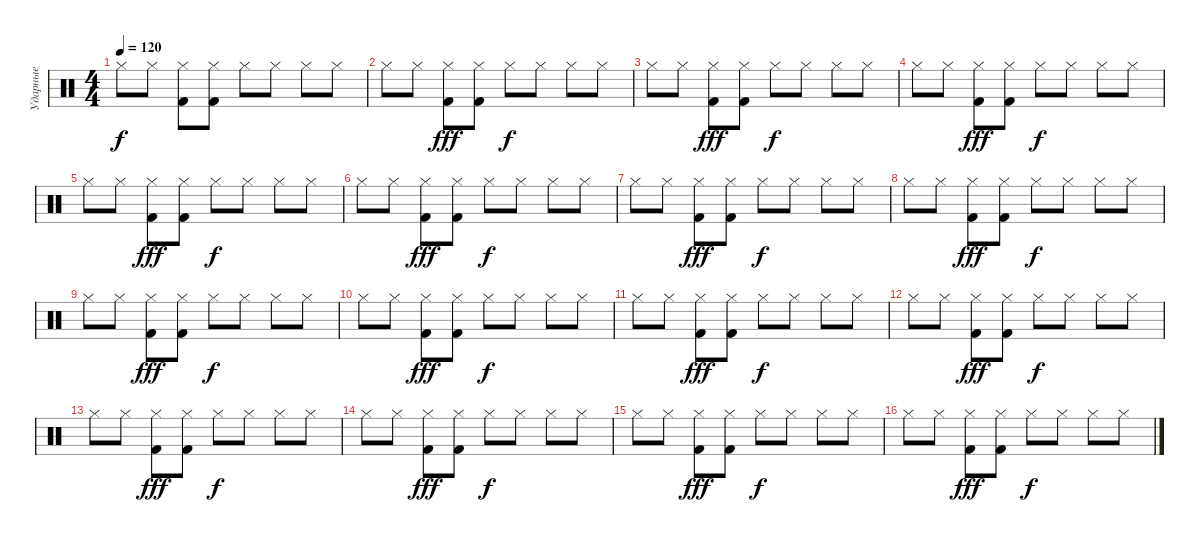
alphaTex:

\track ("Ударные" "Ударные") {instrument percussion}
\staff {score}
\articulation defaults
\ts (4 4)
\tempo 120
\clef neutral
\ks c "Hi-Hat (closed)".8{dy f} "Hi-Hat (closed)".8
("Hi-Hat (closed)" "Kick (hit) 2").8 ("Hi-Hat (closed)" "Kick (hit) 2").8 "Hi-Hat (closed)".8 "Hi-Hat (closed)".8 "Hi-Hat (closed)".8 "Hi-Hat (closed)".8 |
"Hi-Hat (closed)".8 "Hi-Hat (closed)".8 ("Hi-Hat (closed)" "Kick (hit) 2").8{dy fff} ("Hi-Hat (closed)" "Kick (hit) 2").8 "Hi-Hat (closed)".8{dy f} "Hi-Hat (closed)".8 "Hi-Hat (closed)".8 "Hi-Hat (closed)".8 |
"Hi-Hat (closed)".8 "Hi-Hat (closed)".8 ("Hi-Hat (closed)" "Kick (hit) 2").8{dy fff} ("Hi-Hat (closed)" "Kick (hit) 2").8 "Hi-Hat (closed)".8{dy f} "Hi-Hat (closed)".8 "Hi-Hat (closed)".8 "Hi-Hat (closed)".8 |
"Hi-Hat (closed)".8 "Hi-Hat (closed)".8 ("Hi-Hat (closed)" "Kick (hit) 2").8{dy fff} ("Hi-Hat (closed)" "Kick (hit) 2").8 "Hi-Hat (closed)".8{dy f} "Hi-Hat (closed)".8 "Hi-Hat (closed)".8 "Hi-Hat (closed)".8 |
"Hi-Hat (closed)".8 "Hi-Hat (closed)".8 ("Hi-Hat (closed)" "Kick (hit) 2").8{dy fff} ("Hi-Hat (closed)" "Kick (hit) 2").8 "Hi-Hat (closed)".8{dy f} "Hi-Hat (closed)".8 "Hi-Hat (closed)".8 "Hi-Hat (closed)".8 |
"Hi-Hat (closed)".8 "Hi-Hat (closed)".8 ("Hi-Hat (closed)" "Kick (hit) 2").8{dy fff} ("Hi-Hat (closed)" "Kick (hit) 2").8 "Hi-Hat (closed)".8{dy f} "Hi-Hat (closed)".8 "Hi-Hat (closed)".8 "Hi-Hat (closed)".8 |
"Hi-Hat (closed)".8 "Hi-Hat (closed)".8 ("Hi-Hat (closed)" "Kick (hit) 2").8{dy fff} ("Hi-Hat (closed)" "Kick (hit) 2").8 "Hi-Hat (closed)".8{dy f} "Hi-Hat (closed)".8 "Hi-Hat (closed)".8 "Hi-Hat (closed)".8 |
"Hi-Hat (closed)".8 "Hi-Hat (closed)".8 ("Hi-Hat (closed)" "Kick (hit) 2").8{dy fff} ("Hi-Hat (closed)" "Kick (hit) 2").8 "Hi-Hat (closed)".8{dy f} "Hi-Hat (closed)".8 "Hi-Hat (closed)".8 "Hi-Hat (closed)".8 |
"Hi-Hat (closed)".8 "Hi-Hat (closed)".8 ("Hi-Hat (closed)" "Kick (hit) 2").8{dy fff} ("Hi-Hat (closed)" "Kick (hit) 2").8 "Hi-Hat (closed)".8{dy f} "Hi-Hat (closed)".8 "Hi-Hat (closed)".8 "Hi-Hat (closed)".8 |
"Hi-Hat (closed)".8 "Hi-Hat (closed)".8 ("Hi-Hat (closed)" "Kick (hit) 2").8{dy fff} ("Hi-Hat (closed)" "Kick (hit) 2").8 "Hi-Hat (closed)".8{dy f} "Hi-Hat (closed)".8 "Hi-Hat (closed)".8 "Hi-Hat (closed)".8 |
"Hi-Hat (closed)".8 "Hi-Hat (closed)".8 ("Hi-Hat (closed)" "Kick (hit) 2").8{dy fff} ("Hi-Hat (closed)" "Kick (hit) 2").8 "Hi-Hat (closed)".8{dy f} "Hi-Hat (closed)".8 "Hi-Hat (closed)".8 "Hi-Hat (closed)".8 |
"Hi-Hat (closed)".8 "Hi-Hat (closed)".8 ("Hi-Hat (closed)" "Kick (hit) 2").8{dy fff} ("Hi-Hat (closed)" "Kick (hit) 2").8 "Hi-Hat (closed)".8{dy f} "Hi-Hat (closed)".8 "Hi-Hat (closed)".8 "Hi-Hat (closed)".8 |
"Hi-Hat (closed)".8 "Hi-Hat (closed)".8 ("Hi-Hat (closed)" "Kick (hit) 2").8{dy fff} ("Hi-Hat (closed)" "Kick (hit) 2").8 "Hi-Hat (closed)".8{dy f} "Hi-Hat (closed)".8 "Hi-Hat (closed)".8 "Hi-Hat (closed)".8 |
"Hi-Hat (closed)".8 "Hi-Hat (closed)".8 ("Hi-Hat (closed)" "Kick (hit) 2").8{dy fff} ("Hi-Hat (closed)" "Kick (hit) 2").8 "Hi-Hat (closed)".8{dy f} "Hi-Hat (closed)".8 "Hi-Hat (closed)".8 "Hi-Hat (closed)".8 |
"Hi-Hat (closed)".8 "Hi-Hat (closed)".8 ("Hi-Hat (closed)" "Kick (hit) 2").8{dy fff} ("Hi-Hat (closed)" "Kick (hit) 2").8 "Hi-Hat (closed)".8{dy f} "Hi-Hat (closed)".8 "Hi-Hat (closed)".8 "Hi-Hat (closed)".8 |
"Hi-Hat (closed)".8 "Hi-Hat (closed)".8 ("Hi-Hat (closed)" "Kick (hit) 2").8{dy fff} ("Hi-Hat (closed)" "Kick (hit) 2").8 "Hi-Hat (closed)".8{dy f} "Hi-Hat (closed)".8 "Hi-Hat (closed)".8 "Hi-Hat (closed)".8
